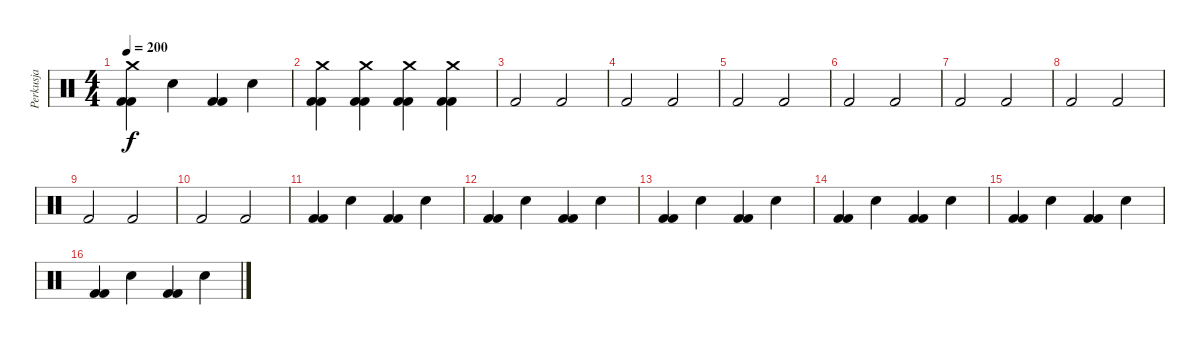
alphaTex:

\track ("Perkusja" "Perkusja") {instrument percussion}
\staff {score}
\articulation defaults
\ts (4 4)
\tempo 200
\clef neutral
\ks c
("Crash medium (hit)" "Kick (hit) 2" "Kick (hit) 2").4{dy f} "Snare (hit) 2".4 ("Kick (hit) 2" "Kick (hit) 2").4 "Snare (hit) 2".4 |
("Crash medium (hit)" "Kick (hit) 2" "Kick (hit) 2").4 ("Crash medium (hit)" "Kick (hit) 2" "Kick (hit) 2").4 ("Crash medium (hit)" "Kick (hit) 2" "Kick (hit) 2").4 ("Crash medium (hit)" "Kick (hit) 2" "Kick (hit) 2").4 |
"Kick (hit) 2".2 "Kick (hit) 2".2 |
"Kick (hit) 2".2 "Kick (hit) 2".2 |
"Kick (hit) 2".2 "Kick (hit) 2".2 |
"Kick (hit) 2".2 "Kick (hit) 2".2 |
"Kick (hit) 2".2 "Kick (hit) 2".2 |
"Kick (hit) 2".2 "Kick (hit) 2".2 |
"Kick (hit) 2".2 "Kick (hit) 2".2 |
"Kick (hit) 2".2 "Kick (hit) 2".2 |
("Kick (hit) 2" "Kick (hit) 2").4 "Snare (hit) 2".4 ("Kick (hit) 2" "Kick (hit) 2").4 "Snare (hit) 2".4 |
("Kick (hit) 2" "Kick (hit) 2").4 "Snare (hit) 2".4 ("Kick (hit) 2" "Kick (hit) 2").4 "Snare (hit) 2".4 |
("Kick (hit) 2" "Kick (hit) 2").4 "Snare (hit) 2".4 ("Kick (hit) 2" "Kick (hit) 2").4 "Snare (hit) 2".4 |
("Kick (hit) 2" "Kick (hit) 2").4 "Snare (hit) 2".4 ("Kick (hit) 2" "Kick (hit) 2").4 "Snare (hit) 2".4 |
("Kick (hit) 2" "Kick (hit) 2").4 "Snare (hit) 2".4 ("Kick (hit) 2" "Kick (hit) 2").4 "Snare (hit) 2".4 |
("Kick (hit) 2" "Kick (hit) 2").4 "Snare (hit) 2".4 ("Kick (hit) 2" "Kick (hit) 2").4 "Snare (hit) 2".4
